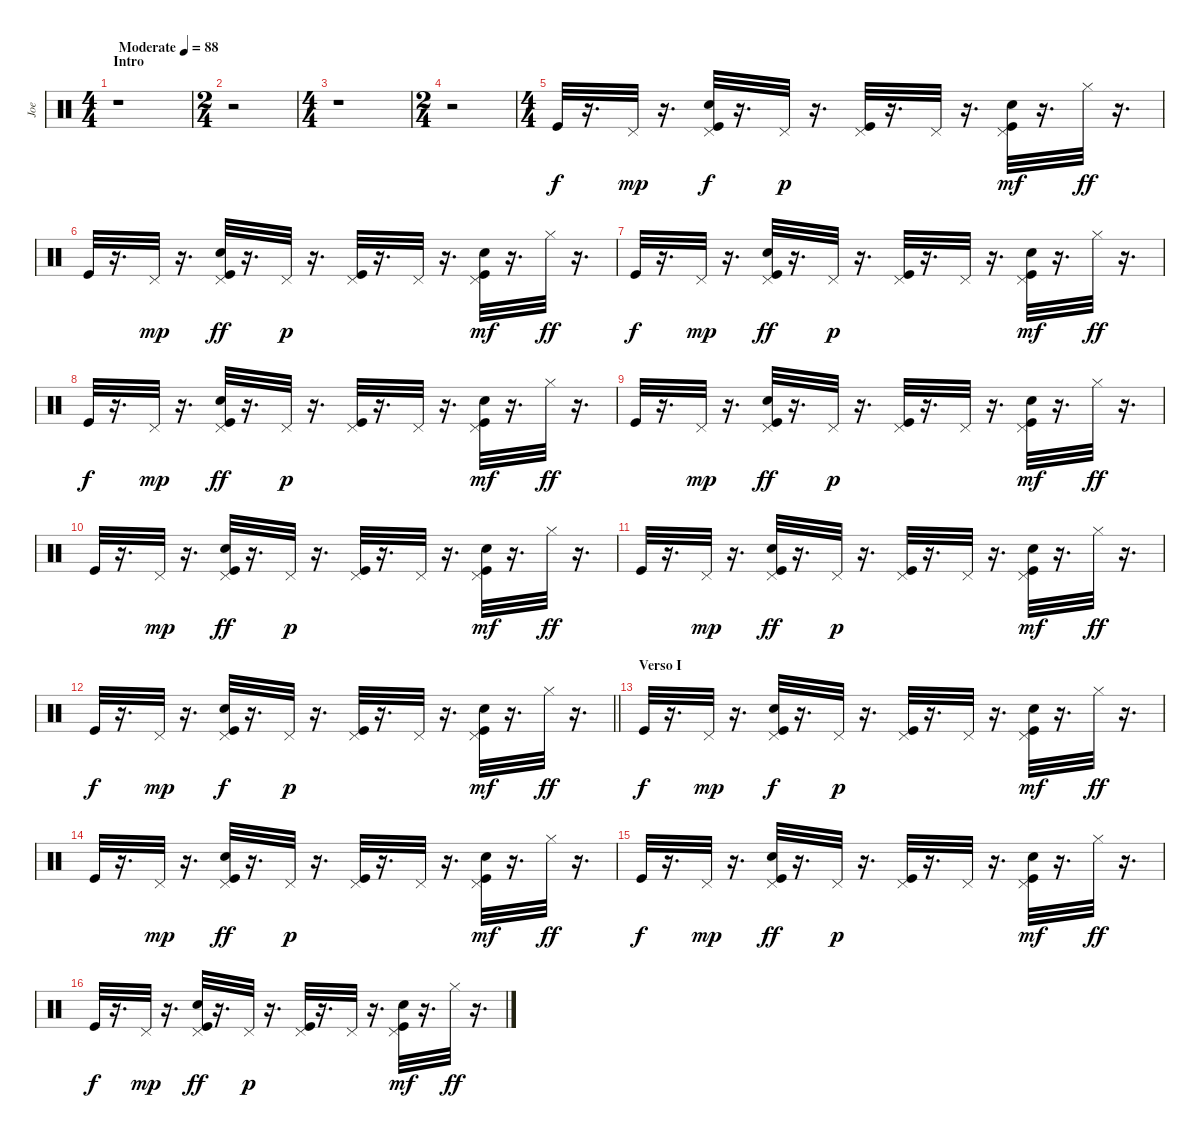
\track ("Joe" "Joe") {instrument percussion}
\staff {score}
\articulation defaults
\ts (4 4)
\section ("" "Intro")
\tempo (88 "Moderate")
\clef neutral
\ks c
r.1{dy f} |
\ts (2 4)
r.2 |
\ts (4 4)
r.1 |
\ts (2 4)
r.2 |
\ts (4 4)
"Kick (hit)".32 r.16{d} "Pedal Hi-Hat (hit)".32{dy mp} r.16{d} ("Pedal Hi-Hat (hit)" "Kick (hit)" "Electric Snare (hit)").32{dy f} r.16{d} "Pedal Hi-Hat (hit)".32{dy p} r.16{d} ("Kick (hit)" "Pedal Hi-Hat (hit)").32 r.16{d} "Pedal Hi-Hat (hit)".32 r.16{d} ("Kick (hit)" "Electric Snare (hit)" "Pedal Hi-Hat (hit)").32{dy mf} r.16{d} "Hi-Hat (closed)".32{dy ff} r.16{d} |
"Kick (hit)".32 r.16{d} "Pedal Hi-Hat (hit)".32{dy mp} r.16{d} ("Pedal Hi-Hat (hit)" "Kick (hit)" "Electric Snare (hit)").32{dy ff} r.16{d} "Pedal Hi-Hat (hit)".32{dy p} r.16{d} ("Kick (hit)" "Pedal Hi-Hat (hit)").32 r.16{d} "Pedal Hi-Hat (hit)".32 r.16{d} ("Kick (hit)" "Electric Snare (hit)" "Pedal Hi-Hat (hit)").32{dy mf} r.16{d} "Hi-Hat (closed)".32{dy ff} r.16{d} |
"Kick (hit)".32{dy f} r.16{d} "Pedal Hi-Hat (hit)".32{dy mp} r.16{d} ("Pedal Hi-Hat (hit)" "Kick (hit)" "Electric Snare (hit)").32{dy ff} r.16{d} "Pedal Hi-Hat (hit)".32{dy p} r.16{d} ("Kick (hit)" "Pedal Hi-Hat (hit)").32 r.16{d} "Pedal Hi-Hat (hit)".32 r.16{d} ("Kick (hit)" "Electric Snare (hit)" "Pedal Hi-Hat (hit)").32{dy mf} r.16{d} "Hi-Hat (closed)".32{dy ff} r.16{d} |
"Kick (hit)".32{dy f} r.16{d} "Pedal Hi-Hat (hit)".32{dy mp} r.16{d} ("Pedal Hi-Hat (hit)" "Kick (hit)" "Electric Snare (hit)").32{dy ff} r.16{d} "Pedal Hi-Hat (hit)".32{dy p} r.16{d} ("Kick (hit)" "Pedal Hi-Hat (hit)").32 r.16{d} "Pedal Hi-Hat (hit)".32 r.16{d} ("Kick (hit)" "Electric Snare (hit)" "Pedal Hi-Hat (hit)").32{dy mf} r.16{d} "Hi-Hat (closed)".32{dy ff} r.16{d} |
"Kick (hit)".32 r.16{d} "Pedal Hi-Hat (hit)".32{dy mp} r.16{d} ("Pedal Hi-Hat (hit)" "Kick (hit)" "Electric Snare (hit)").32{dy ff} r.16{d} "Pedal Hi-Hat (hit)".32{dy p} r.16{d} ("Kick (hit)" "Pedal Hi-Hat (hit)").32 r.16{d} "Pedal Hi-Hat (hit)".32 r.16{d} ("Kick (hit)" "Electric Snare (hit)" "Pedal Hi-Hat (hit)").32{dy mf} r.16{d} "Hi-Hat (closed)".32{dy ff} r.16{d} |
"Kick (hit)".32 r.16{d} "Pedal Hi-Hat (hit)".32{dy mp} r.16{d} ("Pedal Hi-Hat (hit)" "Kick (hit)" "Electric Snare (hit)").32{dy ff} r.16{d} "Pedal Hi-Hat (hit)".32{dy p} r.16{d} ("Kick (hit)" "Pedal Hi-Hat (hit)").32 r.16{d} "Pedal Hi-Hat (hit)".32 r.16{d} ("Kick (hit)" "Electric Snare (hit)" "Pedal Hi-Hat (hit)").32{dy mf} r.16{d} "Hi-Hat (closed)".32{dy ff} r.16{d} |
"Kick (hit)".32 r.16{d} "Pedal Hi-Hat (hit)".32{dy mp} r.16{d} ("Pedal Hi-Hat (hit)" "Kick (hit)" "Electric Snare (hit)").32{dy ff} r.16{d} "Pedal Hi-Hat (hit)".32{dy p} r.16{d} ("Kick (hit)" "Pedal Hi-Hat (hit)").32 r.16{d} "Pedal Hi-Hat (hit)".32 r.16{d} ("Kick (hit)" "Electric Snare (hit)" "Pedal Hi-Hat (hit)").32{dy mf} r.16{d} "Hi-Hat (closed)".32{dy ff} r.16{d} |
\barLineRight lightlight "Kick (hit)".32{dy f}
r.16{d} "Pedal Hi-Hat (hit)".32{dy mp} r.16{d} ("Pedal Hi-Hat (hit)" "Kick (hit)" "Electric Snare (hit)").32{dy f} r.16{d} "Pedal Hi-Hat (hit)".32{dy p} r.16{d} ("Kick (hit)" "Pedal Hi-Hat (hit)").32 r.16{d} "Pedal Hi-Hat (hit)".32 r.16{d} ("Kick (hit)" "Electric Snare (hit)" "Pedal Hi-Hat (hit)").32{dy mf} r.16{d} "Hi-Hat (closed)".32{dy ff} r.16{d} |
\section ("" "Verso I")
"Kick (hit)".32{dy f} r.16{d} "Pedal Hi-Hat (hit)".32{dy mp} r.16{d} ("Pedal Hi-Hat (hit)" "Kick (hit)" "Electric Snare (hit)").32{dy f} r.16{d} "Pedal Hi-Hat (hit)".32{dy p} r.16{d} ("Kick (hit)" "Pedal Hi-Hat (hit)").32 r.16{d} "Pedal Hi-Hat (hit)".32 r.16{d} ("Kick (hit)" "Electric Snare (hit)" "Pedal Hi-Hat (hit)").32{dy mf} r.16{d} "Hi-Hat (closed)".32{dy ff} r.16{d} |
"Kick (hit)".32 r.16{d} "Pedal Hi-Hat (hit)".32{dy mp} r.16{d} ("Pedal Hi-Hat (hit)" "Kick (hit)" "Electric Snare (hit)").32{dy ff} r.16{d} "Pedal Hi-Hat (hit)".32{dy p} r.16{d} ("Kick (hit)" "Pedal Hi-Hat (hit)").32 r.16{d} "Pedal Hi-Hat (hit)".32 r.16{d} ("Kick (hit)" "Electric Snare (hit)" "Pedal Hi-Hat (hit)").32{dy mf} r.16{d} "Hi-Hat (closed)".32{dy ff} r.16{d} |
"Kick (hit)".32{dy f} r.16{d} "Pedal Hi-Hat (hit)".32{dy mp} r.16{d} ("Pedal Hi-Hat (hit)" "Kick (hit)" "Electric Snare (hit)").32{dy ff} r.16{d} "Pedal Hi-Hat (hit)".32{dy p} r.16{d} ("Kick (hit)" "Pedal Hi-Hat (hit)").32 r.16{d} "Pedal Hi-Hat (hit)".32 r.16{d} ("Kick (hit)" "Electric Snare (hit)" "Pedal Hi-Hat (hit)").32{dy mf} r.16{d} "Hi-Hat (closed)".32{dy ff} r.16{d} |
"Kick (hit)".32{dy f} r.16{d} "Pedal Hi-Hat (hit)".32{dy mp} r.16{d} ("Pedal Hi-Hat (hit)" "Kick (hit)" "Electric Snare (hit)").32{dy ff} r.16{d} "Pedal Hi-Hat (hit)".32{dy p} r.16{d} ("Kick (hit)" "Pedal Hi-Hat (hit)").32 r.16{d} "Pedal Hi-Hat (hit)".32 r.16{d} ("Kick (hit)" "Electric Snare (hit)" "Pedal Hi-Hat (hit)").32{dy mf} r.16{d} "Hi-Hat (closed)".32{dy ff} r.16{d}
